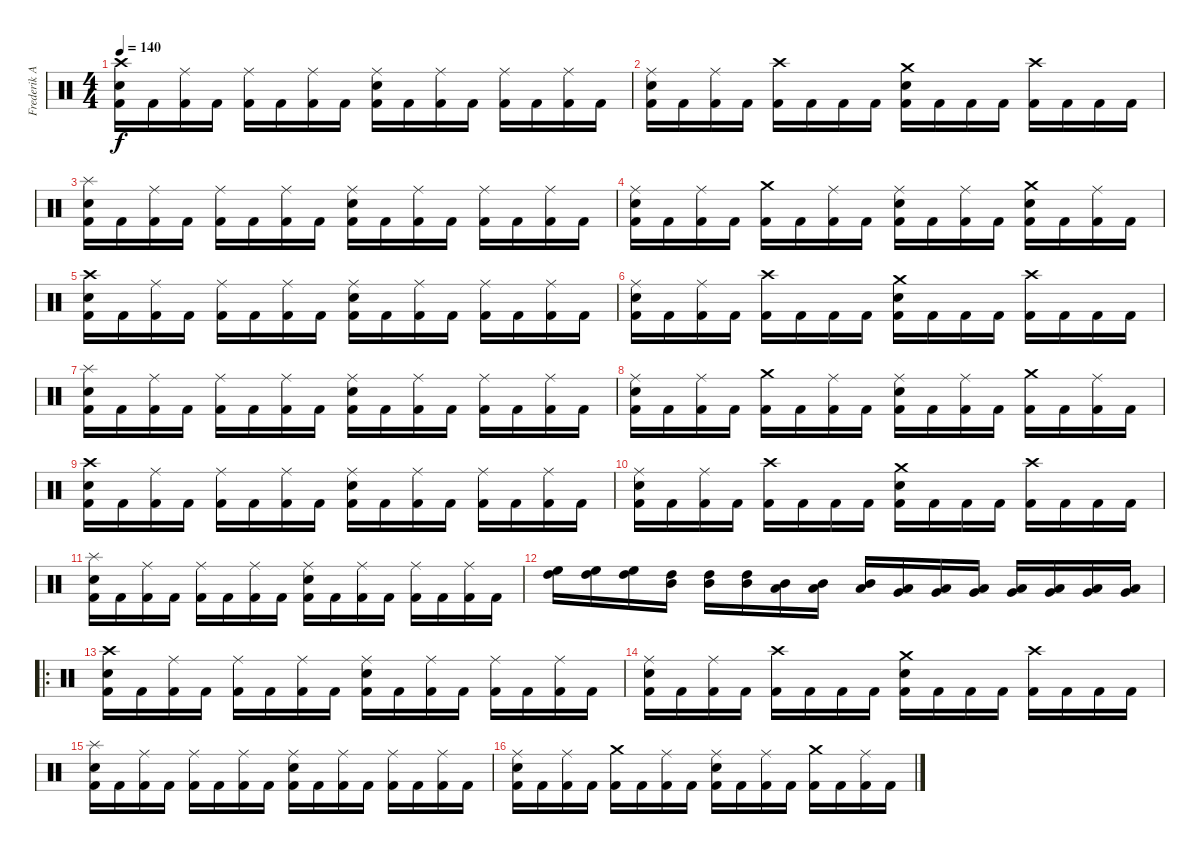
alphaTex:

\track ("Frederik Anderson" "Frederik A") {instrument percussion}
\staff {score}
\articulation defaults
\ts (4 4)
\tempo 140
\clef neutral
\ks c
("Crash high (hit)" "Electric Snare (hit)" "Kick (hit) 2").16{dy f} "Kick (hit) 2".16 ("Ride (middle)" "Kick (hit) 2").16 "Kick (hit) 2".16 ("Ride (middle)" "Kick (hit) 2").16 "Kick (hit) 2".16 ("Ride (middle)" "Kick (hit) 2").16 "Kick (hit) 2".16 ("Ride (middle)" "Electric Snare (hit)" "Kick (hit) 2").16 "Kick (hit) 2".16 ("Ride (middle)" "Kick (hit) 2").16 "Kick (hit) 2".16 ("Ride (middle)" "Kick (hit) 2").16 "Kick (hit) 2".16 ("Ride (middle)" "Kick (hit) 2").16 "Kick (hit) 2".16 |
("Ride (middle)" "Electric Snare (hit)" "Kick (hit) 2").16 "Kick (hit) 2".16 ("Ride (middle)" "Kick (hit) 2").16 "Kick (hit) 2".16 ("Crash high (hit)" "Kick (hit) 2").16 "Kick (hit) 2".16 "Kick (hit) 2".16 "Kick (hit) 2".16 ("Crash medium (hit)" "Electric Snare (hit)" "Kick (hit) 2").16 "Kick (hit) 2".16 "Kick (hit) 2".16 "Kick (hit) 2".16 ("Crash high (hit)" "Kick (hit) 2").16 "Kick (hit) 2".16 "Kick (hit) 2".16 "Kick (hit) 2".16 |
("Splash (hit)" "Electric Snare (hit)" "Kick (hit) 2").16 "Kick (hit) 2".16 ("Ride (middle)" "Kick (hit) 2").16 "Kick (hit) 2".16 ("Ride (middle)" "Kick (hit) 2").16 "Kick (hit) 2".16 ("Ride (middle)" "Kick (hit) 2").16 "Kick (hit) 2".16 ("Ride (middle)" "Electric Snare (hit)" "Kick (hit) 2").16 "Kick (hit) 2".16 ("Ride (middle)" "Kick (hit) 2").16 "Kick (hit) 2".16 ("Ride (middle)" "Kick (hit) 2").16 "Kick (hit) 2".16 ("Ride (middle)" "Kick (hit) 2").16 "Kick (hit) 2".16 |
("Ride (middle)" "Electric Snare (hit)" "Kick (hit) 2").16 "Kick (hit) 2".16 ("Ride (middle)" "Kick (hit) 2").16 "Kick (hit) 2".16 ("Crash medium (hit)" "Kick (hit) 2").16 "Kick (hit) 2".16 ("Ride (middle)" "Kick (hit) 2").16 "Kick (hit) 2".16 ("Ride (middle)" "Electric Snare (hit)" "Kick (hit) 2").16 "Kick (hit) 2".16 ("Ride (middle)" "Kick (hit) 2").16 "Kick (hit) 2".16 ("Crash medium (hit)" "Electric Snare (hit)" "Kick (hit) 2").16 "Kick (hit) 2".16 ("Ride (middle)" "Kick (hit) 2").16 "Kick (hit) 2".16 |
("Crash high (hit)" "Electric Snare (hit)" "Kick (hit) 2").16 "Kick (hit) 2".16 ("Ride (middle)" "Kick (hit) 2").16 "Kick (hit) 2".16 ("Ride (middle)" "Kick (hit) 2").16 "Kick (hit) 2".16 ("Ride (middle)" "Kick (hit) 2").16 "Kick (hit) 2".16 ("Ride (middle)" "Electric Snare (hit)" "Kick (hit) 2").16 "Kick (hit) 2".16 ("Ride (middle)" "Kick (hit) 2").16 "Kick (hit) 2".16 ("Ride (middle)" "Kick (hit) 2").16 "Kick (hit) 2".16 ("Ride (middle)" "Kick (hit) 2").16 "Kick (hit) 2".16 |
("Ride (middle)" "Electric Snare (hit)" "Kick (hit) 2").16 "Kick (hit) 2".16 ("Ride (middle)" "Kick (hit) 2").16 "Kick (hit) 2".16 ("Crash high (hit)" "Kick (hit) 2").16 "Kick (hit) 2".16 "Kick (hit) 2".16 "Kick (hit) 2".16 ("Crash medium (hit)" "Electric Snare (hit)" "Kick (hit) 2").16 "Kick (hit) 2".16 "Kick (hit) 2".16 "Kick (hit) 2".16 ("Crash high (hit)" "Kick (hit) 2").16 "Kick (hit) 2".16 "Kick (hit) 2".16 "Kick (hit) 2".16 |
("Splash (hit)" "Electric Snare (hit)" "Kick (hit) 2").16 "Kick (hit) 2".16 ("Ride (middle)" "Kick (hit) 2").16 "Kick (hit) 2".16 ("Ride (middle)" "Kick (hit) 2").16 "Kick (hit) 2".16 ("Ride (middle)" "Kick (hit) 2").16 "Kick (hit) 2".16 ("Ride (middle)" "Electric Snare (hit)" "Kick (hit) 2").16 "Kick (hit) 2".16 ("Ride (middle)" "Kick (hit) 2").16 "Kick (hit) 2".16 ("Ride (middle)" "Kick (hit) 2").16 "Kick (hit) 2".16 ("Ride (middle)" "Kick (hit) 2").16 "Kick (hit) 2".16 |
("Ride (middle)" "Electric Snare (hit)" "Kick (hit) 2").16 "Kick (hit) 2".16 ("Ride (middle)" "Kick (hit) 2").16 "Kick (hit) 2".16 ("Crash medium (hit)" "Kick (hit) 2").16 "Kick (hit) 2".16 ("Ride (middle)" "Kick (hit) 2").16 "Kick (hit) 2".16 ("Ride (middle)" "Electric Snare (hit)" "Kick (hit) 2").16 "Kick (hit) 2".16 ("Ride (middle)" "Kick (hit) 2").16 "Kick (hit) 2".16 ("Crash medium (hit)" "Kick (hit) 2").16 "Kick (hit) 2".16 ("Ride (middle)" "Kick (hit) 2").16 "Kick (hit) 2".16 |
("Crash high (hit)" "Electric Snare (hit)" "Kick (hit) 2").16 "Kick (hit) 2".16 ("Ride (middle)" "Kick (hit) 2").16 "Kick (hit) 2".16 ("Ride (middle)" "Kick (hit) 2").16 "Kick (hit) 2".16 ("Ride (middle)" "Kick (hit) 2").16 "Kick (hit) 2".16 ("Ride (middle)" "Electric Snare (hit)" "Kick (hit) 2").16 "Kick (hit) 2".16 ("Ride (middle)" "Kick (hit) 2").16 "Kick (hit) 2".16 ("Ride (middle)" "Kick (hit) 2").16 "Kick (hit) 2".16 ("Ride (middle)" "Kick (hit) 2").16 "Kick (hit) 2".16 |
("Ride (middle)" "Electric Snare (hit)" "Kick (hit) 2").16 "Kick (hit) 2".16 ("Ride (middle)" "Kick (hit) 2").16 "Kick (hit) 2".16 ("Crash high (hit)" "Kick (hit) 2").16 "Kick (hit) 2".16 "Kick (hit) 2".16 "Kick (hit) 2".16 ("Crash medium (hit)" "Electric Snare (hit)" "Kick (hit) 2").16 "Kick (hit) 2".16 "Kick (hit) 2".16 "Kick (hit) 2".16 ("Crash high (hit)" "Kick (hit) 2").16 "Kick (hit) 2".16 "Kick (hit) 2".16 "Kick (hit) 2".16 |
("Splash (hit)" "Electric Snare (hit)" "Kick (hit) 2").16 "Kick (hit) 2".16 ("Ride (middle)" "Kick (hit) 2").16 "Kick (hit) 2".16 ("Ride (middle)" "Kick (hit) 2").16 "Kick (hit) 2".16 ("Ride (middle)" "Kick (hit) 2").16 "Kick (hit) 2".16 ("Ride (middle)" "Electric Snare (hit)" "Kick (hit) 2").16 "Kick (hit) 2".16 ("Ride (middle)" "Kick (hit) 2").16 "Kick (hit) 2".16 ("Ride (middle)" "Kick (hit) 2").16 "Kick (hit) 2".16 ("Ride (middle)" "Kick (hit) 2").16 "Kick (hit) 2".16 |
("High Floor Tom (hit)" "High Tom (hit)").16 ("High Floor Tom (hit)" "High Tom (hit)").16 ("High Floor Tom (hit)" "High Tom (hit)").16 ("High Tom (hit)" "Mid Tom (hit)").16 ("High Tom (hit)" "Mid Tom (hit)").16 ("High Tom (hit)" "Mid Tom (hit)").16 ("Mid Tom (hit)" "Low Tom (hit)").16 ("Mid Tom (hit)" "Low Tom (hit)").16 ("Mid Tom (hit)" "Low Tom (hit)").16 ("Low Tom (hit)" "Very Low Tom (hit)").16 ("Low Tom (hit)" "Very Low Tom (hit)").16 ("Low Tom (hit)" "Very Low Tom (hit)").16 ("Very Low Tom (hit)" "Low Floor Tom (hit)").16 ("Very Low Tom (hit)" "Low Floor Tom (hit)").16 ("Very Low Tom (hit)" "Low Floor Tom (hit)").16 ("Very Low Tom (hit)" "Low Floor Tom (hit)").16 |
\ro
("Crash high (hit)" "Electric Snare (hit)" "Kick (hit) 2").16 "Kick (hit) 2".16 ("Ride (middle)" "Kick (hit) 2").16 "Kick (hit) 2".16 ("Ride (middle)" "Kick (hit) 2").16 "Kick (hit) 2".16 ("Ride (middle)" "Kick (hit) 2").16 "Kick (hit) 2".16 ("Ride (middle)" "Electric Snare (hit)" "Kick (hit) 2").16 "Kick (hit) 2".16 ("Ride (middle)" "Kick (hit) 2").16 "Kick (hit) 2".16 ("Ride (middle)" "Kick (hit) 2").16 "Kick (hit) 2".16 ("Ride (middle)" "Kick (hit) 2").16 "Kick (hit) 2".16 |
("Ride (middle)" "Electric Snare (hit)" "Kick (hit) 2").16 "Kick (hit) 2".16 ("Ride (middle)" "Kick (hit) 2").16 "Kick (hit) 2".16 ("Crash high (hit)" "Kick (hit) 2").16 "Kick (hit) 2".16 "Kick (hit) 2".16 "Kick (hit) 2".16 ("Crash medium (hit)" "Electric Snare (hit)" "Kick (hit) 2").16 "Kick (hit) 2".16 "Kick (hit) 2".16 "Kick (hit) 2".16 ("Crash high (hit)" "Kick (hit) 2").16 "Kick (hit) 2".16 "Kick (hit) 2".16 "Kick (hit) 2".16 |
("Splash (hit)" "Electric Snare (hit)" "Kick (hit) 2").16 "Kick (hit) 2".16 ("Ride (middle)" "Kick (hit) 2").16 "Kick (hit) 2".16 ("Ride (middle)" "Kick (hit) 2").16 "Kick (hit) 2".16 ("Ride (middle)" "Kick (hit) 2").16 "Kick (hit) 2".16 ("Ride (middle)" "Electric Snare (hit)" "Kick (hit) 2").16 "Kick (hit) 2".16 ("Ride (middle)" "Kick (hit) 2").16 "Kick (hit) 2".16 ("Ride (middle)" "Kick (hit) 2").16 "Kick (hit) 2".16 ("Ride (middle)" "Kick (hit) 2").16 "Kick (hit) 2".16 |
("Ride (middle)" "Electric Snare (hit)" "Kick (hit) 2").16 "Kick (hit) 2".16 ("Ride (middle)" "Kick (hit) 2").16 "Kick (hit) 2".16 ("Crash medium (hit)" "Kick (hit) 2").16 "Kick (hit) 2".16 ("Ride (middle)" "Kick (hit) 2").16 "Kick (hit) 2".16 ("Ride (middle)" "Electric Snare (hit)" "Kick (hit) 2").16 "Kick (hit) 2".16 ("Ride (middle)" "Kick (hit) 2").16 "Kick (hit) 2".16 ("Crash medium (hit)" "Kick (hit) 2").16 "Kick (hit) 2".16 ("Ride (middle)" "Kick (hit) 2").16 "Kick (hit) 2".16
